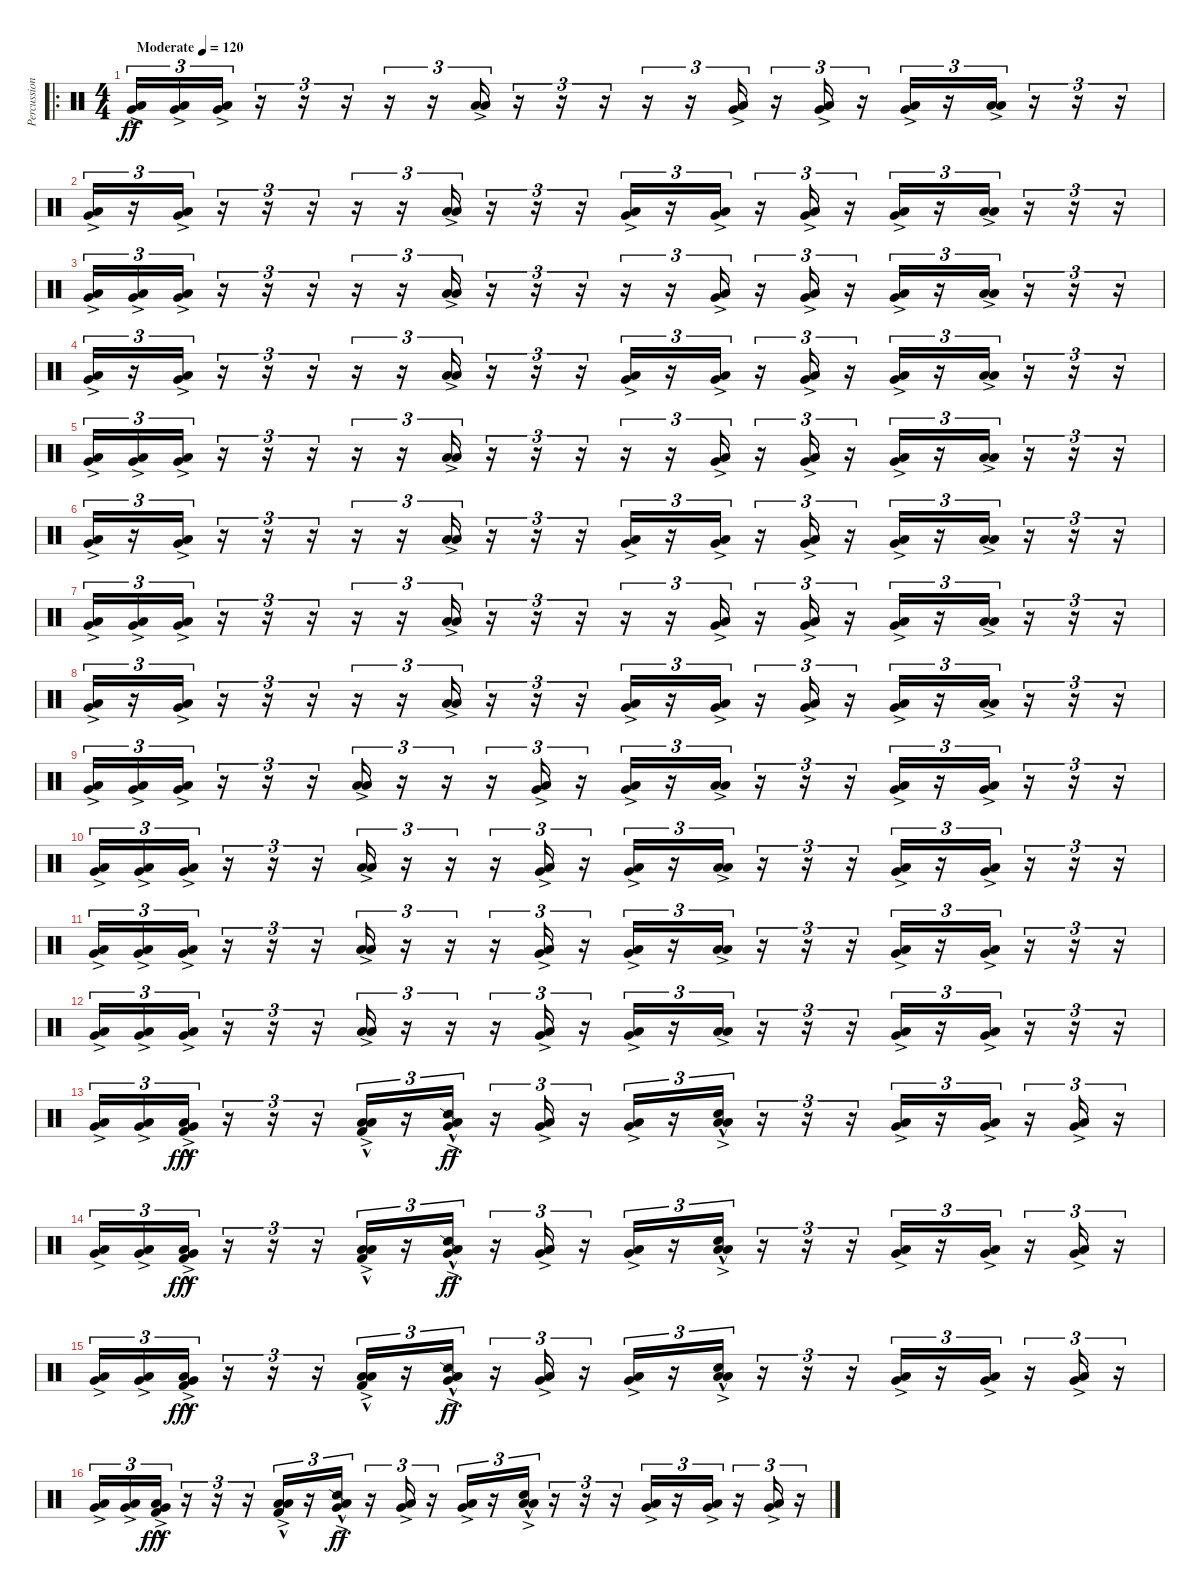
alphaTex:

\track ("Percussion" "Percussion") {instrument percussion}
\staff {score}
\articulation defaults
\ro
\ts (4 4)
\tempo (120 "Moderate")
\clef neutral
\ks c
("Very Low Tom (hit)"{ac} "Low Floor Tom (hit)"{ac}).16{tu (3 2) dy ff} ("Very Low Tom (hit)"{ac} "Low Floor Tom (hit)"{ac}).16{tu (3 2)} ("Very Low Tom (hit)"{ac} "Low Floor Tom (hit)"{ac}).16{tu (3 2)} r.16{tu (3 2)} r.16{tu (3 2)} r.16{tu (3 2)} r.16{tu (3 2)} r.16{tu (3 2)} ("Low Floor Tom (hit)"{ac} "Low Floor Tom (hit)"{ac}).16{tu (3 2)} r.16{tu (3 2)} r.16{tu (3 2)} r.16{tu (3 2)} r.16{tu (3 2)} r.16{tu (3 2)} ("Very Low Tom (hit)"{ac} "Low Floor Tom (hit)"{ac}).16{tu (3 2)} r.16{tu (3 2)} ("Very Low Tom (hit)"{ac} "Low Floor Tom (hit)"{ac}).16{tu (3 2)} r.16{tu (3 2)} ("Very Low Tom (hit)"{ac} "Low Floor Tom (hit)"{ac}).16{tu (3 2)} r.16{tu (3 2)} ("Low Floor Tom (hit)"{ac} "Low Floor Tom (hit)"{ac}).16{tu (3 2)} r.16{tu (3 2)} r.16{tu (3 2)} r.16{tu (3 2)} |
("Very Low Tom (hit)"{ac} "Low Floor Tom (hit)"{ac}).16{tu (3 2)} r.16{tu (3 2)} ("Very Low Tom (hit)"{ac} "Low Floor Tom (hit)"{ac}).16{tu (3 2)} r.16{tu (3 2)} r.16{tu (3 2)} r.16{tu (3 2)} r.16{tu (3 2)} r.16{tu (3 2)} ("Low Floor Tom (hit)"{ac} "Low Floor Tom (hit)"{ac}).16{tu (3 2)} r.16{tu (3 2)} r.16{tu (3 2)} r.16{tu (3 2)} ("Very Low Tom (hit)"{ac} "Low Floor Tom (hit)"{ac}).16{tu (3 2)} r.16{tu (3 2)} ("Very Low Tom (hit)"{ac} "Low Floor Tom (hit)"{ac}).16{tu (3 2)} r.16{tu (3 2)} ("Very Low Tom (hit)"{ac} "Low Floor Tom (hit)"{ac}).16{tu (3 2)} r.16{tu (3 2)} ("Very Low Tom (hit)"{ac} "Low Floor Tom (hit)"{ac}).16{tu (3 2)} r.16{tu (3 2)} ("Low Floor Tom (hit)"{ac} "Low Floor Tom (hit)"{ac}).16{tu (3 2)} r.16{tu (3 2)} r.16{tu (3 2)} r.16{tu (3 2)} |
("Very Low Tom (hit)"{ac} "Low Floor Tom (hit)"{ac}).16{tu (3 2)} ("Very Low Tom (hit)"{ac} "Low Floor Tom (hit)"{ac}).16{tu (3 2)} ("Very Low Tom (hit)"{ac} "Low Floor Tom (hit)"{ac}).16{tu (3 2)} r.16{tu (3 2)} r.16{tu (3 2)} r.16{tu (3 2)} r.16{tu (3 2)} r.16{tu (3 2)} ("Low Floor Tom (hit)"{ac} "Low Floor Tom (hit)"{ac}).16{tu (3 2)} r.16{tu (3 2)} r.16{tu (3 2)} r.16{tu (3 2)} r.16{tu (3 2)} r.16{tu (3 2)} ("Very Low Tom (hit)"{ac} "Low Floor Tom (hit)"{ac}).16{tu (3 2)} r.16{tu (3 2)} ("Very Low Tom (hit)"{ac} "Low Floor Tom (hit)"{ac}).16{tu (3 2)} r.16{tu (3 2)} ("Very Low Tom (hit)"{ac} "Low Floor Tom (hit)"{ac}).16{tu (3 2)} r.16{tu (3 2)} ("Low Floor Tom (hit)"{ac} "Low Floor Tom (hit)"{ac}).16{tu (3 2)} r.16{tu (3 2)} r.16{tu (3 2)} r.16{tu (3 2)} |
("Very Low Tom (hit)"{ac} "Low Floor Tom (hit)"{ac}).16{tu (3 2)} r.16{tu (3 2)} ("Very Low Tom (hit)"{ac} "Low Floor Tom (hit)"{ac}).16{tu (3 2)} r.16{tu (3 2)} r.16{tu (3 2)} r.16{tu (3 2)} r.16{tu (3 2)} r.16{tu (3 2)} ("Low Floor Tom (hit)"{ac} "Low Floor Tom (hit)"{ac}).16{tu (3 2)} r.16{tu (3 2)} r.16{tu (3 2)} r.16{tu (3 2)} ("Very Low Tom (hit)"{ac} "Low Floor Tom (hit)"{ac}).16{tu (3 2)} r.16{tu (3 2)} ("Very Low Tom (hit)"{ac} "Low Floor Tom (hit)"{ac}).16{tu (3 2)} r.16{tu (3 2)} ("Very Low Tom (hit)"{ac} "Low Floor Tom (hit)"{ac}).16{tu (3 2)} r.16{tu (3 2)} ("Very Low Tom (hit)"{ac} "Low Floor Tom (hit)"{ac}).16{tu (3 2)} r.16{tu (3 2)} ("Low Floor Tom (hit)"{ac} "Low Floor Tom (hit)"{ac}).16{tu (3 2)} r.16{tu (3 2)} r.16{tu (3 2)} r.16{tu (3 2)} |
("Very Low Tom (hit)"{ac} "Low Floor Tom (hit)"{ac}).16{tu (3 2)} ("Very Low Tom (hit)"{ac} "Low Floor Tom (hit)"{ac}).16{tu (3 2)} ("Very Low Tom (hit)"{ac} "Low Floor Tom (hit)"{ac}).16{tu (3 2)} r.16{tu (3 2)} r.16{tu (3 2)} r.16{tu (3 2)} r.16{tu (3 2)} r.16{tu (3 2)} ("Low Floor Tom (hit)"{ac} "Low Floor Tom (hit)"{ac}).16{tu (3 2)} r.16{tu (3 2)} r.16{tu (3 2)} r.16{tu (3 2)} r.16{tu (3 2)} r.16{tu (3 2)} ("Very Low Tom (hit)"{ac} "Low Floor Tom (hit)"{ac}).16{tu (3 2)} r.16{tu (3 2)} ("Very Low Tom (hit)"{ac} "Low Floor Tom (hit)"{ac}).16{tu (3 2)} r.16{tu (3 2)} ("Very Low Tom (hit)"{ac} "Low Floor Tom (hit)"{ac}).16{tu (3 2)} r.16{tu (3 2)} ("Low Floor Tom (hit)"{ac} "Low Floor Tom (hit)"{ac}).16{tu (3 2)} r.16{tu (3 2)} r.16{tu (3 2)} r.16{tu (3 2)} |
("Very Low Tom (hit)"{ac} "Low Floor Tom (hit)"{ac}).16{tu (3 2)} r.16{tu (3 2)} ("Very Low Tom (hit)"{ac} "Low Floor Tom (hit)"{ac}).16{tu (3 2)} r.16{tu (3 2)} r.16{tu (3 2)} r.16{tu (3 2)} r.16{tu (3 2)} r.16{tu (3 2)} ("Low Floor Tom (hit)"{ac} "Low Floor Tom (hit)"{ac}).16{tu (3 2)} r.16{tu (3 2)} r.16{tu (3 2)} r.16{tu (3 2)} ("Very Low Tom (hit)"{ac} "Low Floor Tom (hit)"{ac}).16{tu (3 2)} r.16{tu (3 2)} ("Very Low Tom (hit)"{ac} "Low Floor Tom (hit)"{ac}).16{tu (3 2)} r.16{tu (3 2)} ("Very Low Tom (hit)"{ac} "Low Floor Tom (hit)"{ac}).16{tu (3 2)} r.16{tu (3 2)} ("Very Low Tom (hit)"{ac} "Low Floor Tom (hit)"{ac}).16{tu (3 2)} r.16{tu (3 2)} ("Low Floor Tom (hit)"{ac} "Low Floor Tom (hit)"{ac}).16{tu (3 2)} r.16{tu (3 2)} r.16{tu (3 2)} r.16{tu (3 2)} |
("Very Low Tom (hit)"{ac} "Low Floor Tom (hit)"{ac}).16{tu (3 2)} ("Very Low Tom (hit)"{ac} "Low Floor Tom (hit)"{ac}).16{tu (3 2)} ("Very Low Tom (hit)"{ac} "Low Floor Tom (hit)"{ac}).16{tu (3 2)} r.16{tu (3 2)} r.16{tu (3 2)} r.16{tu (3 2)} r.16{tu (3 2)} r.16{tu (3 2)} ("Low Floor Tom (hit)"{ac} "Low Floor Tom (hit)"{ac}).16{tu (3 2)} r.16{tu (3 2)} r.16{tu (3 2)} r.16{tu (3 2)} r.16{tu (3 2)} r.16{tu (3 2)} ("Very Low Tom (hit)"{ac} "Low Floor Tom (hit)"{ac}).16{tu (3 2)} r.16{tu (3 2)} ("Very Low Tom (hit)"{ac} "Low Floor Tom (hit)"{ac}).16{tu (3 2)} r.16{tu (3 2)} ("Very Low Tom (hit)"{ac} "Low Floor Tom (hit)"{ac}).16{tu (3 2)} r.16{tu (3 2)} ("Low Floor Tom (hit)"{ac} "Low Floor Tom (hit)"{ac}).16{tu (3 2)} r.16{tu (3 2)} r.16{tu (3 2)} r.16{tu (3 2)} |
("Very Low Tom (hit)"{ac} "Low Floor Tom (hit)"{ac}).16{tu (3 2)} r.16{tu (3 2)} ("Very Low Tom (hit)"{ac} "Low Floor Tom (hit)"{ac}).16{tu (3 2)} r.16{tu (3 2)} r.16{tu (3 2)} r.16{tu (3 2)} r.16{tu (3 2)} r.16{tu (3 2)} ("Low Floor Tom (hit)"{ac} "Low Floor Tom (hit)"{ac}).16{tu (3 2)} r.16{tu (3 2)} r.16{tu (3 2)} r.16{tu (3 2)} ("Very Low Tom (hit)"{ac} "Low Floor Tom (hit)"{ac}).16{tu (3 2)} r.16{tu (3 2)} ("Very Low Tom (hit)"{ac} "Low Floor Tom (hit)"{ac}).16{tu (3 2)} r.16{tu (3 2)} ("Very Low Tom (hit)"{ac} "Low Floor Tom (hit)"{ac}).16{tu (3 2)} r.16{tu (3 2)} ("Very Low Tom (hit)"{ac} "Low Floor Tom (hit)"{ac}).16{tu (3 2)} r.16{tu (3 2)} ("Low Floor Tom (hit)"{ac} "Low Floor Tom (hit)"{ac}).16{tu (3 2)} r.16{tu (3 2)} r.16{tu (3 2)} r.16{tu (3 2)} |
("Very Low Tom (hit)"{ac} "Low Floor Tom (hit)"{ac}).16{tu (3 2)} ("Very Low Tom (hit)"{ac} "Low Floor Tom (hit)"{ac}).16{tu (3 2)} ("Very Low Tom (hit)"{ac} "Low Floor Tom (hit)"{ac}).16{tu (3 2)} r.16{tu (3 2)} r.16{tu (3 2)} r.16{tu (3 2)} ("Low Floor Tom (hit)"{ac} "Low Floor Tom (hit)"{ac}).16{tu (3 2)} r.16{tu (3 2)} r.16{tu (3 2)} r.16{tu (3 2)} ("Low Floor Tom (hit)"{ac} "Very Low Tom (hit)"{ac}).16{tu (3 2)} r.16{tu (3 2)} ("Very Low Tom (hit)"{ac} "Low Floor Tom (hit)"{ac}).16{tu (3 2)} r.16{tu (3 2)} ("Low Floor Tom (hit)"{ac} "Low Floor Tom (hit)"{ac}).16{tu (3 2)} r.16{tu (3 2)} r.16{tu (3 2)} r.16{tu (3 2)} ("Very Low Tom (hit)"{ac} "Low Floor Tom (hit)"{ac}).16{tu (3 2)} r.16{tu (3 2)} ("Very Low Tom (hit)"{ac} "Low Floor Tom (hit)"{ac}).16{tu (3 2)} r.16{tu (3 2)} r.16{tu (3 2)} r.16{tu (3 2)} |
("Very Low Tom (hit)"{ac} "Low Floor Tom (hit)"{ac}).16{tu (3 2)} ("Very Low Tom (hit)"{ac} "Low Floor Tom (hit)"{ac}).16{tu (3 2)} ("Very Low Tom (hit)"{ac} "Low Floor Tom (hit)"{ac}).16{tu (3 2)} r.16{tu (3 2)} r.16{tu (3 2)} r.16{tu (3 2)} ("Low Floor Tom (hit)"{ac} "Low Floor Tom (hit)"{ac}).16{tu (3 2)} r.16{tu (3 2)} r.16{tu (3 2)} r.16{tu (3 2)} ("Low Floor Tom (hit)"{ac} "Very Low Tom (hit)"{ac}).16{tu (3 2)} r.16{tu (3 2)} ("Very Low Tom (hit)"{ac} "Low Floor Tom (hit)"{ac}).16{tu (3 2)} r.16{tu (3 2)} ("Low Floor Tom (hit)"{ac} "Low Floor Tom (hit)"{ac}).16{tu (3 2)} r.16{tu (3 2)} r.16{tu (3 2)} r.16{tu (3 2)} ("Very Low Tom (hit)"{ac} "Low Floor Tom (hit)"{ac}).16{tu (3 2)} r.16{tu (3 2)} ("Very Low Tom (hit)"{ac} "Low Floor Tom (hit)"{ac}).16{tu (3 2)} r.16{tu (3 2)} r.16{tu (3 2)} r.16{tu (3 2)} |
("Very Low Tom (hit)"{ac} "Low Floor Tom (hit)"{ac}).16{tu (3 2)} ("Very Low Tom (hit)"{ac} "Low Floor Tom (hit)"{ac}).16{tu (3 2)} ("Very Low Tom (hit)"{ac} "Low Floor Tom (hit)"{ac}).16{tu (3 2)} r.16{tu (3 2)} r.16{tu (3 2)} r.16{tu (3 2)} ("Low Floor Tom (hit)"{ac} "Low Floor Tom (hit)"{ac}).16{tu (3 2)} r.16{tu (3 2)} r.16{tu (3 2)} r.16{tu (3 2)} ("Low Floor Tom (hit)"{ac} "Very Low Tom (hit)"{ac}).16{tu (3 2)} r.16{tu (3 2)} ("Very Low Tom (hit)"{ac} "Low Floor Tom (hit)"{ac}).16{tu (3 2)} r.16{tu (3 2)} ("Low Floor Tom (hit)"{ac} "Low Floor Tom (hit)"{ac}).16{tu (3 2)} r.16{tu (3 2)} r.16{tu (3 2)} r.16{tu (3 2)} ("Very Low Tom (hit)"{ac} "Low Floor Tom (hit)"{ac}).16{tu (3 2)} r.16{tu (3 2)} ("Very Low Tom (hit)"{ac} "Low Floor Tom (hit)"{ac}).16{tu (3 2)} r.16{tu (3 2)} r.16{tu (3 2)} r.16{tu (3 2)} |
("Very Low Tom (hit)"{ac} "Low Floor Tom (hit)"{ac}).16{tu (3 2)} ("Very Low Tom (hit)"{ac} "Low Floor Tom (hit)"{ac}).16{tu (3 2)} ("Very Low Tom (hit)"{ac} "Low Floor Tom (hit)"{ac}).16{tu (3 2)} r.16{tu (3 2)} r.16{tu (3 2)} r.16{tu (3 2)} ("Low Floor Tom (hit)"{ac} "Low Floor Tom (hit)"{ac}).16{tu (3 2)} r.16{tu (3 2)} r.16{tu (3 2)} r.16{tu (3 2)} ("Low Floor Tom (hit)"{ac} "Very Low Tom (hit)"{ac}).16{tu (3 2)} r.16{tu (3 2)} ("Very Low Tom (hit)"{ac} "Low Floor Tom (hit)"{ac}).16{tu (3 2)} r.16{tu (3 2)} ("Low Floor Tom (hit)"{ac} "Low Floor Tom (hit)"{ac}).16{tu (3 2)} r.16{tu (3 2)} r.16{tu (3 2)} r.16{tu (3 2)} ("Very Low Tom (hit)"{ac} "Low Floor Tom (hit)"{ac}).16{tu (3 2)} r.16{tu (3 2)} ("Very Low Tom (hit)"{ac} "Low Floor Tom (hit)"{ac}).16{tu (3 2)} r.16{tu (3 2)} r.16{tu (3 2)} r.16{tu (3 2)} |
("Very Low Tom (hit)"{ac} "Low Floor Tom (hit)"{ac}).16{tu (3 2)} ("Very Low Tom (hit)"{ac} "Low Floor Tom (hit)"{ac}).16{tu (3 2)} ("Very Low Tom (hit)"{ac} "Low Floor Tom (hit)"{ac} "Kick (hit) 2"{hac}).16{tu (3 2) dy fff} r.16{tu (3 2)} r.16{tu (3 2)} r.16{tu (3 2)} ("Low Floor Tom (hit)"{ac} "Low Floor Tom (hit)"{ac} "Kick (hit) 2"{hac}).16{tu (3 2)} r.16{tu (3 2)} ("Snare (side stick) 2"{hac} "Low Floor Tom (hit)"{ac} "Very Low Tom (hit)"{ac}).16{tu (3 2) dy ff} r.16{tu (3 2)} ("Very Low Tom (hit)"{ac} "Low Floor Tom (hit)"{ac}).16{tu (3 2)} r.16{tu (3 2)} ("Very Low Tom (hit)"{ac} "Low Floor Tom (hit)"{ac}).16{tu (3 2)} r.16{tu (3 2)} ("Snare (hit) 2"{hac} "Low Floor Tom (hit)"{ac} "Low Floor Tom (hit)"{ac}).16{tu (3 2)} r.16{tu (3 2)} r.16{tu (3 2)} r.16{tu (3 2)} ("Very Low Tom (hit)"{ac} "Low Floor Tom (hit)"{ac}).16{tu (3 2)} r.16{tu (3 2)} ("Low Floor Tom (hit)"{ac} "Very Low Tom (hit)"{ac}).16{tu (3 2)} r.16{tu (3 2)} ("Low Floor Tom (hit)"{ac} "Very Low Tom (hit)"{ac}).16{tu (3 2)} r.16{tu (3 2)} |
("Very Low Tom (hit)"{ac} "Low Floor Tom (hit)"{ac}).16{tu (3 2)} ("Very Low Tom (hit)"{ac} "Low Floor Tom (hit)"{ac}).16{tu (3 2)} ("Very Low Tom (hit)"{ac} "Low Floor Tom (hit)"{ac} "Kick (hit) 2"{hac}).16{tu (3 2) dy fff} r.16{tu (3 2)} r.16{tu (3 2)} r.16{tu (3 2)} ("Low Floor Tom (hit)"{ac} "Low Floor Tom (hit)"{ac} "Kick (hit) 2"{hac}).16{tu (3 2)} r.16{tu (3 2)} ("Snare (side stick) 2"{hac} "Low Floor Tom (hit)"{ac} "Very Low Tom (hit)"{ac}).16{tu (3 2) dy ff} r.16{tu (3 2)} ("Very Low Tom (hit)"{ac} "Low Floor Tom (hit)"{ac}).16{tu (3 2)} r.16{tu (3 2)} ("Very Low Tom (hit)"{ac} "Low Floor Tom (hit)"{ac}).16{tu (3 2)} r.16{tu (3 2)} ("Snare (hit) 2"{hac} "Low Floor Tom (hit)"{ac} "Low Floor Tom (hit)"{ac}).16{tu (3 2)} r.16{tu (3 2)} r.16{tu (3 2)} r.16{tu (3 2)} ("Very Low Tom (hit)"{ac} "Low Floor Tom (hit)"{ac}).16{tu (3 2)} r.16{tu (3 2)} ("Low Floor Tom (hit)"{ac} "Very Low Tom (hit)"{ac}).16{tu (3 2)} r.16{tu (3 2)} ("Low Floor Tom (hit)"{ac} "Very Low Tom (hit)"{ac}).16{tu (3 2)} r.16{tu (3 2)} |
("Very Low Tom (hit)"{ac} "Low Floor Tom (hit)"{ac}).16{tu (3 2)} ("Very Low Tom (hit)"{ac} "Low Floor Tom (hit)"{ac}).16{tu (3 2)} ("Very Low Tom (hit)"{ac} "Low Floor Tom (hit)"{ac} "Kick (hit) 2"{hac}).16{tu (3 2) dy fff} r.16{tu (3 2)} r.16{tu (3 2)} r.16{tu (3 2)} ("Low Floor Tom (hit)"{ac} "Low Floor Tom (hit)"{ac} "Kick (hit) 2"{hac}).16{tu (3 2)} r.16{tu (3 2)} ("Snare (side stick) 2"{hac} "Low Floor Tom (hit)"{ac} "Very Low Tom (hit)"{ac}).16{tu (3 2) dy ff} r.16{tu (3 2)} ("Very Low Tom (hit)"{ac} "Low Floor Tom (hit)"{ac}).16{tu (3 2)} r.16{tu (3 2)} ("Very Low Tom (hit)"{ac} "Low Floor Tom (hit)"{ac}).16{tu (3 2)} r.16{tu (3 2)} ("Snare (hit) 2"{hac} "Low Floor Tom (hit)"{ac} "Low Floor Tom (hit)"{ac}).16{tu (3 2)} r.16{tu (3 2)} r.16{tu (3 2)} r.16{tu (3 2)} ("Very Low Tom (hit)"{ac} "Low Floor Tom (hit)"{ac}).16{tu (3 2)} r.16{tu (3 2)} ("Low Floor Tom (hit)"{ac} "Very Low Tom (hit)"{ac}).16{tu (3 2)} r.16{tu (3 2)} ("Low Floor Tom (hit)"{ac} "Very Low Tom (hit)"{ac}).16{tu (3 2)} r.16{tu (3 2)} |
("Very Low Tom (hit)"{ac} "Low Floor Tom (hit)"{ac}).16{tu (3 2)} ("Very Low Tom (hit)"{ac} "Low Floor Tom (hit)"{ac}).16{tu (3 2)} ("Very Low Tom (hit)"{ac} "Low Floor Tom (hit)"{ac} "Kick (hit) 2"{hac}).16{tu (3 2) dy fff} r.16{tu (3 2)} r.16{tu (3 2)} r.16{tu (3 2)} ("Low Floor Tom (hit)"{ac} "Low Floor Tom (hit)"{ac} "Kick (hit) 2"{hac}).16{tu (3 2)} r.16{tu (3 2)} ("Snare (side stick) 2"{hac} "Low Floor Tom (hit)"{ac} "Very Low Tom (hit)"{ac}).16{tu (3 2) dy ff} r.16{tu (3 2)} ("Very Low Tom (hit)"{ac} "Low Floor Tom (hit)"{ac}).16{tu (3 2)} r.16{tu (3 2)} ("Very Low Tom (hit)"{ac} "Low Floor Tom (hit)"{ac}).16{tu (3 2)} r.16{tu (3 2)} ("Snare (hit) 2"{hac} "Low Floor Tom (hit)"{ac} "Low Floor Tom (hit)"{ac}).16{tu (3 2)} r.16{tu (3 2)} r.16{tu (3 2)} r.16{tu (3 2)} ("Very Low Tom (hit)"{ac} "Low Floor Tom (hit)"{ac}).16{tu (3 2)} r.16{tu (3 2)} ("Low Floor Tom (hit)"{ac} "Very Low Tom (hit)"{ac}).16{tu (3 2)} r.16{tu (3 2)} ("Low Floor Tom (hit)"{ac} "Very Low Tom (hit)"{ac}).16{tu (3 2)} r.16{tu (3 2)}
